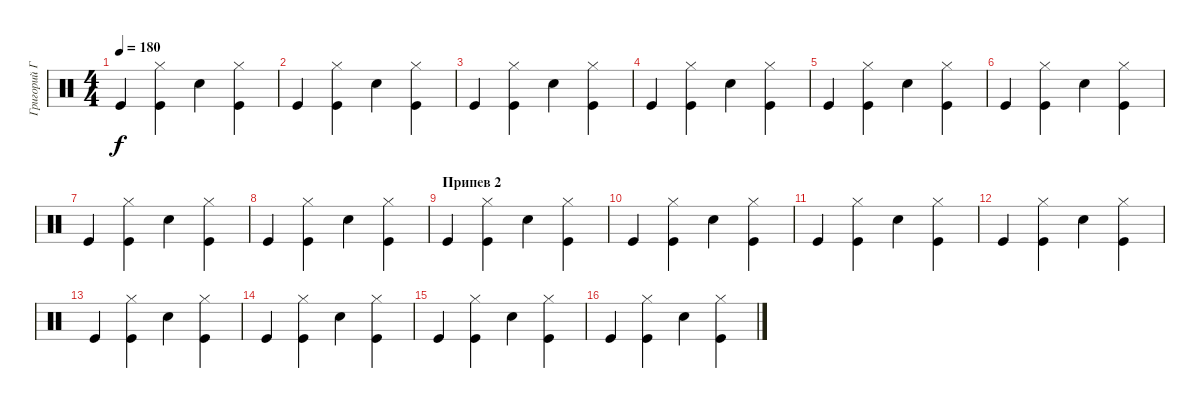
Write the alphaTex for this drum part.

\track ("Григорий Габерман" "Григорий Г") {instrument percussion}
\staff {score}
\articulation defaults
\ts (4 4)
\tempo 180
\clef neutral
\ks c "Kick (hit)".4{dy f}
("Kick (hit)" "Hi-Hat (closed)").4 "Snare (hit) 2".4 ("Kick (hit)" "Hi-Hat (closed)").4 |
"Kick (hit)".4 ("Kick (hit)" "Hi-Hat (closed)").4 "Snare (hit) 2".4 ("Kick (hit)" "Hi-Hat (closed)").4 |
"Kick (hit)".4 ("Kick (hit)" "Hi-Hat (closed)").4 "Snare (hit) 2".4 ("Kick (hit)" "Hi-Hat (closed)").4 |
"Kick (hit)".4 ("Kick (hit)" "Hi-Hat (closed)").4 "Snare (hit) 2".4 ("Kick (hit)" "Hi-Hat (closed)").4 |
"Kick (hit)".4 ("Kick (hit)" "Hi-Hat (closed)").4 "Snare (hit) 2".4 ("Kick (hit)" "Hi-Hat (closed)").4 |
"Kick (hit)".4 ("Kick (hit)" "Hi-Hat (closed)").4 "Snare (hit) 2".4 ("Kick (hit)" "Hi-Hat (closed)").4 |
"Kick (hit)".4 ("Kick (hit)" "Hi-Hat (closed)").4 "Snare (hit) 2".4 ("Kick (hit)" "Hi-Hat (closed)").4 |
"Kick (hit)".4 ("Kick (hit)" "Hi-Hat (closed)").4 "Snare (hit) 2".4 ("Kick (hit)" "Hi-Hat (closed)").4 |
\section ("" "Припев 2")
"Kick (hit)".4 ("Kick (hit)" "Hi-Hat (closed)").4 "Snare (hit) 2".4 ("Kick (hit)" "Hi-Hat (closed)").4 |
"Kick (hit)".4 ("Kick (hit)" "Hi-Hat (closed)").4 "Snare (hit) 2".4 ("Kick (hit)" "Hi-Hat (closed)").4 |
"Kick (hit)".4 ("Kick (hit)" "Hi-Hat (closed)").4 "Snare (hit) 2".4 ("Kick (hit)" "Hi-Hat (closed)").4 |
"Kick (hit)".4 ("Kick (hit)" "Hi-Hat (closed)").4 "Snare (hit) 2".4 ("Kick (hit)" "Hi-Hat (closed)").4 |
"Kick (hit)".4 ("Kick (hit)" "Hi-Hat (closed)").4 "Snare (hit) 2".4 ("Kick (hit)" "Hi-Hat (closed)").4 |
"Kick (hit)".4 ("Kick (hit)" "Hi-Hat (closed)").4 "Snare (hit) 2".4 ("Kick (hit)" "Hi-Hat (closed)").4 |
"Kick (hit)".4 ("Kick (hit)" "Hi-Hat (closed)").4 "Snare (hit) 2".4 ("Kick (hit)" "Hi-Hat (closed)").4 |
"Kick (hit)".4 ("Kick (hit)" "Hi-Hat (closed)").4 "Snare (hit) 2".4 ("Kick (hit)" "Hi-Hat (closed)").4
